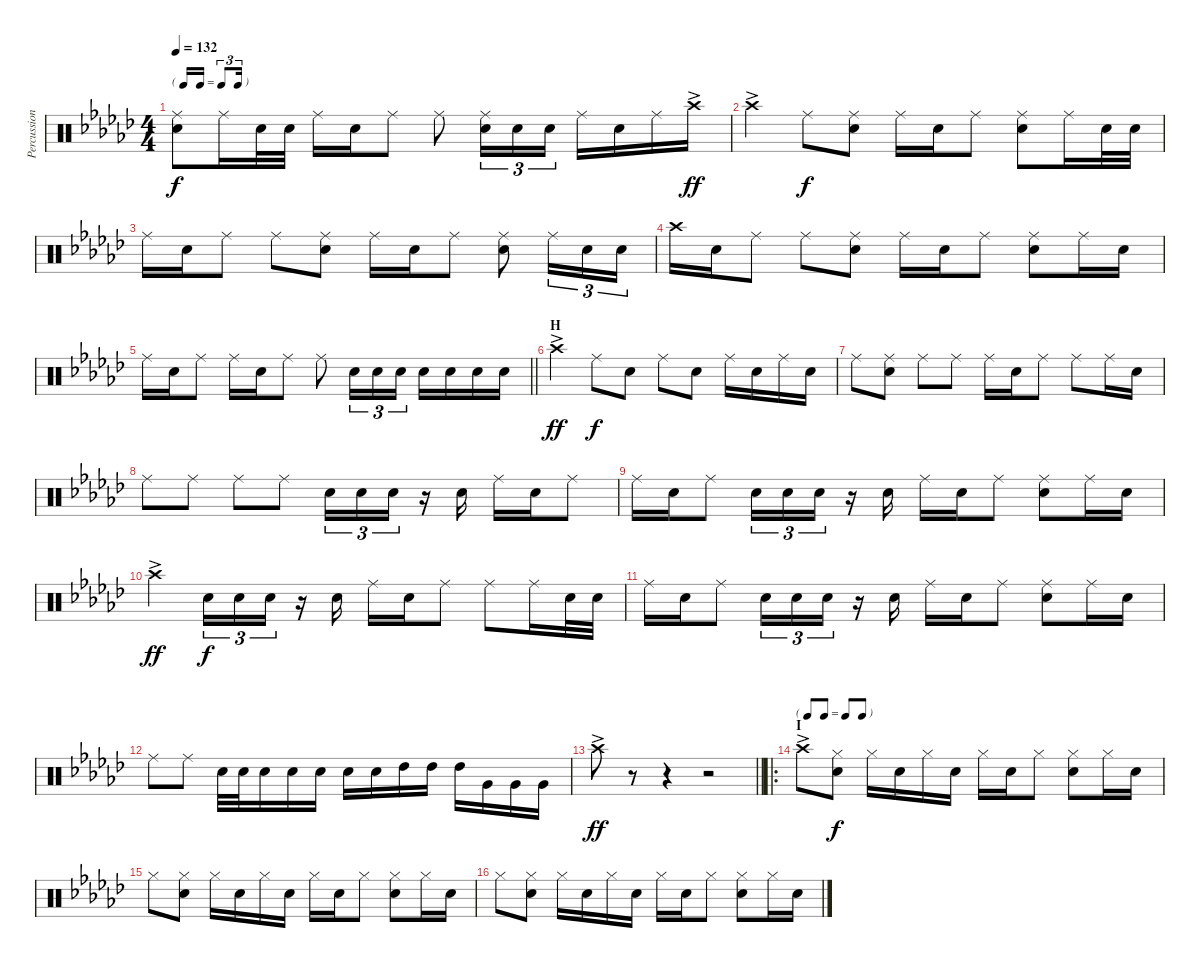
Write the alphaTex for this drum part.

\track ("Percussion hand" "Percussion") {instrument percussion}
\staff {score}
\articulation defaults
\ts (4 4)
\tf triplet16th
\tempo 132
\clef neutral
\ks gb
("Ride (middle)" "Snare (hit) 2").8{dy f} "Ride (middle)".16 "Snare (hit) 2".32 "Snare (hit) 2".32 "Ride (middle)".16 "Snare (hit) 2".16 "Ride (middle)".8 "Ride (middle)".8 ("Ride (middle)" "Snare (hit) 2").16{tu (3 2)} "Snare (hit) 2".16{tu (3 2)} "Snare (hit) 2".16{tu (3 2)} "Ride (middle)".16 "Snare (hit) 2".16 "Ride (middle)".16 "Crash high (hit)"{ac}.16{dy ff} |
"Crash high (hit)"{ac}.4 "Ride (middle)".8{dy f} ("Ride (middle)" "Snare (hit) 2").8 "Ride (middle)".16 "Snare (hit) 2".16 "Ride (middle)".8 ("Ride (middle)" "Snare (hit) 2").8 "Ride (middle)".16 "Snare (hit) 2".32 "Snare (hit) 2".32 |
"Ride (middle)".16 "Snare (hit) 2".16 "Ride (middle)".8 "Ride (middle)".8 ("Ride (middle)" "Snare (hit) 2").8 "Ride (middle)".16 "Snare (hit) 2".16 "Ride (middle)".8 ("Ride (middle)" "Snare (hit) 2").8 "Ride (middle)".16{tu (3 2)} "Snare (hit) 2".16{tu (3 2)} "Snare (hit) 2".16{tu (3 2)} |
"Crash high (hit)".16 "Snare (hit) 2".16 "Ride (middle)".8 "Ride (middle)".8 ("Ride (middle)" "Snare (hit) 2").8 "Ride (middle)".16 "Snare (hit) 2".16 "Ride (middle)".8 ("Ride (middle)" "Snare (hit) 2").8 "Ride (middle)".16 "Snare (hit) 2".16 |
\barLineRight lightlight "Ride (middle)".16 "Snare (hit) 2".16 "Ride (middle)".8 "Ride (middle)".16 "Snare (hit) 2".16 "Ride (middle)".8 "Ride (middle)".8 "Snare (hit) 2".16{tu (3 2)} "Snare (hit) 2".16{tu (3 2)} "Snare (hit) 2".16{tu (3 2)} "Snare (hit) 2".16 "Snare (hit) 2".16 "Snare (hit) 2".16 "Snare (hit) 2".16
|
\section ("" "H")
"Crash high (hit)"{ac}.4{dy ff} "Ride (middle)".8{dy f} "Snare (hit) 2".8 "Ride (middle)".8 "Snare (hit) 2".8 "Ride (middle)".16 "Snare (hit) 2".16 "Ride (middle)".16 "Snare (hit) 2".16 |
"Ride (middle)".8 ("Ride (middle)" "Snare (hit) 2").8 "Ride (middle)".8 "Ride (middle)".8 "Ride (middle)".16 "Snare (hit) 2".16 "Ride (middle)".8 "Ride (middle)".8 "Ride (middle)".16 "Snare (hit) 2".16 |
"Ride (middle)".8 "Ride (middle)".8 "Ride (middle)".8 "Ride (middle)".8 "Snare (hit) 2".16{tu (3 2)} "Snare (hit) 2".16{tu (3 2)} "Snare (hit) 2".16{tu (3 2)} r.16 "Snare (hit) 2".16 "Ride (middle)".16 "Snare (hit) 2".16 "Ride (middle)".8 |
"Ride (middle)".16 "Snare (hit) 2".16 "Ride (middle)".8 "Snare (hit) 2".16{tu (3 2)} "Snare (hit) 2".16{tu (3 2)} "Snare (hit) 2".16{tu (3 2)} r.16 "Snare (hit) 2".16 "Ride (middle)".16 "Snare (hit) 2".16 "Ride (middle)".8 ("Ride (middle)" "Snare (hit) 2").8 "Ride (middle)".16 "Snare (hit) 2".16 |
"Crash high (hit)"{ac}.4{dy ff} "Snare (hit) 2".16{tu (3 2) dy f} "Snare (hit) 2".16{tu (3 2)} "Snare (hit) 2".16{tu (3 2)} r.16 "Snare (hit) 2".16 "Ride (middle)".16 "Snare (hit) 2".16 "Ride (middle)".8 "Ride (middle)".8 "Ride (middle)".16 "Snare (hit) 2".32 "Snare (hit) 2".32 |
"Ride (middle)".16 "Snare (hit) 2".16 "Ride (middle)".8 "Snare (hit) 2".16{tu (3 2)} "Snare (hit) 2".16{tu (3 2)} "Snare (hit) 2".16{tu (3 2)} r.16 "Snare (hit) 2".16 "Ride (middle)".16 "Snare (hit) 2".16 "Ride (middle)".8 ("Ride (middle)" "Snare (hit) 2").8 "Ride (middle)".16 "Snare (hit) 2".16 |
"Ride (middle)".8 "Ride (middle)".8 "Snare (hit) 2".32 "Snare (hit) 2".32 "Snare (hit) 2".16 "Snare (hit) 2".16 "Snare (hit) 2".16 "Snare (hit) 2".16 "Snare (hit) 2".16 "High Tom (hit)".16 "High Tom (hit)".16 "High Tom (hit)".16 "Very Low Tom (hit)".16 "Very Low Tom (hit)".16 "Very Low Tom (hit)".16 |
\barLineRight lightlight "Crash high (hit)"{ac}.8{dy ff}
r.8 r.4 r.2 |
\ro
\tf none
\section ("" "I")
"Crash high (hit)"{ac}.8 ("Hi-Hat (closed)" "Snare (hit) 2").8{dy f} "Hi-Hat (closed)".16 "Snare (hit) 2".16 "Hi-Hat (closed)".16 "Snare (hit) 2".16 "Hi-Hat (closed)".16 "Snare (hit) 2".16 "Hi-Hat (closed)".8 ("Hi-Hat (closed)" "Snare (hit) 2").8 "Hi-Hat (closed)".16 "Snare (hit) 2".16 |
"Hi-Hat (closed)".8 ("Hi-Hat (closed)" "Snare (hit) 2").8 "Hi-Hat (closed)".16 "Snare (hit) 2".16 "Hi-Hat (closed)".16 "Snare (hit) 2".16 "Hi-Hat (closed)".16 "Snare (hit) 2".16 "Hi-Hat (closed)".8 ("Hi-Hat (closed)" "Snare (hit) 2").8 "Hi-Hat (closed)".16 "Snare (hit) 2".16 |
"Hi-Hat (closed)".8 ("Hi-Hat (closed)" "Snare (hit) 2").8 "Hi-Hat (closed)".16 "Snare (hit) 2".16 "Hi-Hat (closed)".16 "Snare (hit) 2".16 "Hi-Hat (closed)".16 "Snare (hit) 2".16 "Hi-Hat (closed)".8 ("Hi-Hat (closed)" "Snare (hit) 2").8 "Hi-Hat (closed)".16 "Snare (hit) 2".16
